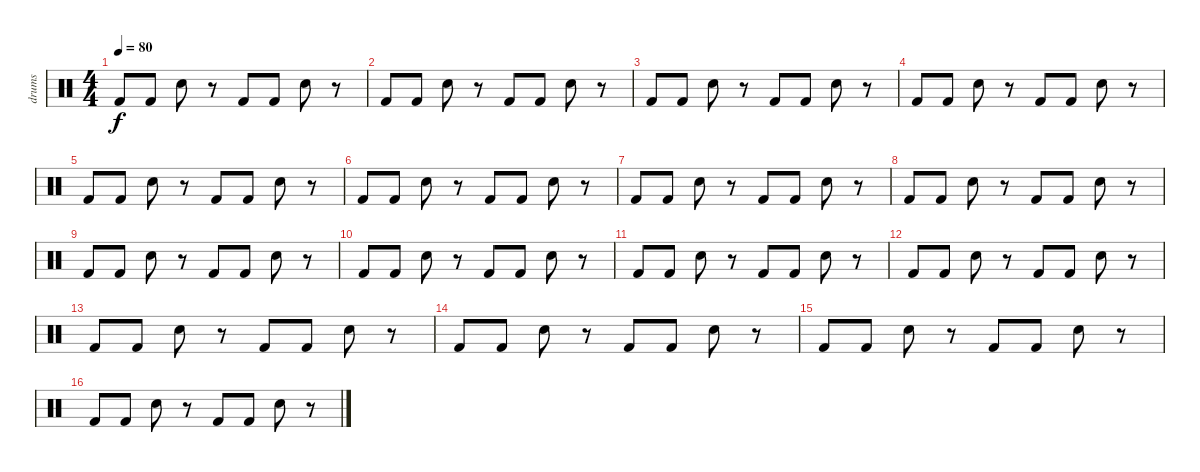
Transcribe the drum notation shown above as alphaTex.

\track ("drums" "drums") {instrument percussion}
\staff {score}
\articulation defaults
\ts (4 4)
\tempo 80
\clef neutral
\ks c "Kick (hit) 2".8{dy f} "Kick (hit) 2".8 "Hand Clap (hit)".8
r.8 "Kick (hit) 2".8 "Kick (hit) 2".8 "Hand Clap (hit)".8 r.8 |
"Kick (hit) 2".8 "Kick (hit) 2".8 "Hand Clap (hit)".8 r.8 "Kick (hit) 2".8 "Kick (hit) 2".8 "Hand Clap (hit)".8 r.8 |
"Kick (hit) 2".8 "Kick (hit) 2".8 "Hand Clap (hit)".8 r.8 "Kick (hit) 2".8 "Kick (hit) 2".8 "Hand Clap (hit)".8 r.8 |
"Kick (hit) 2".8 "Kick (hit) 2".8 "Hand Clap (hit)".8 r.8 "Kick (hit) 2".8 "Kick (hit) 2".8 "Hand Clap (hit)".8 r.8 |
"Kick (hit) 2".8 "Kick (hit) 2".8 "Hand Clap (hit)".8 r.8 "Kick (hit) 2".8 "Kick (hit) 2".8 "Hand Clap (hit)".8 r.8 |
"Kick (hit) 2".8 "Kick (hit) 2".8 "Hand Clap (hit)".8 r.8 "Kick (hit) 2".8 "Kick (hit) 2".8 "Hand Clap (hit)".8 r.8 |
"Kick (hit) 2".8 "Kick (hit) 2".8 "Hand Clap (hit)".8 r.8 "Kick (hit) 2".8 "Kick (hit) 2".8 "Hand Clap (hit)".8 r.8 |
"Kick (hit) 2".8 "Kick (hit) 2".8 "Hand Clap (hit)".8 r.8 "Kick (hit) 2".8 "Kick (hit) 2".8 "Hand Clap (hit)".8 r.8 |
"Kick (hit) 2".8 "Kick (hit) 2".8 "Hand Clap (hit)".8 r.8 "Kick (hit) 2".8 "Kick (hit) 2".8 "Hand Clap (hit)".8 r.8 |
"Kick (hit) 2".8 "Kick (hit) 2".8 "Hand Clap (hit)".8 r.8 "Kick (hit) 2".8 "Kick (hit) 2".8 "Hand Clap (hit)".8 r.8 |
"Kick (hit) 2".8 "Kick (hit) 2".8 "Hand Clap (hit)".8 r.8 "Kick (hit) 2".8 "Kick (hit) 2".8 "Hand Clap (hit)".8 r.8 |
"Kick (hit) 2".8 "Kick (hit) 2".8 "Hand Clap (hit)".8 r.8 "Kick (hit) 2".8 "Kick (hit) 2".8 "Hand Clap (hit)".8 r.8 |
"Kick (hit) 2".8 "Kick (hit) 2".8 "Hand Clap (hit)".8 r.8 "Kick (hit) 2".8 "Kick (hit) 2".8 "Hand Clap (hit)".8 r.8 |
"Kick (hit) 2".8 "Kick (hit) 2".8 "Hand Clap (hit)".8 r.8 "Kick (hit) 2".8 "Kick (hit) 2".8 "Hand Clap (hit)".8 r.8 |
"Kick (hit) 2".8 "Kick (hit) 2".8 "Hand Clap (hit)".8 r.8 "Kick (hit) 2".8 "Kick (hit) 2".8 "Hand Clap (hit)".8 r.8 |
"Kick (hit) 2".8 "Kick (hit) 2".8 "Hand Clap (hit)".8 r.8 "Kick (hit) 2".8 "Kick (hit) 2".8 "Hand Clap (hit)".8 r.8
